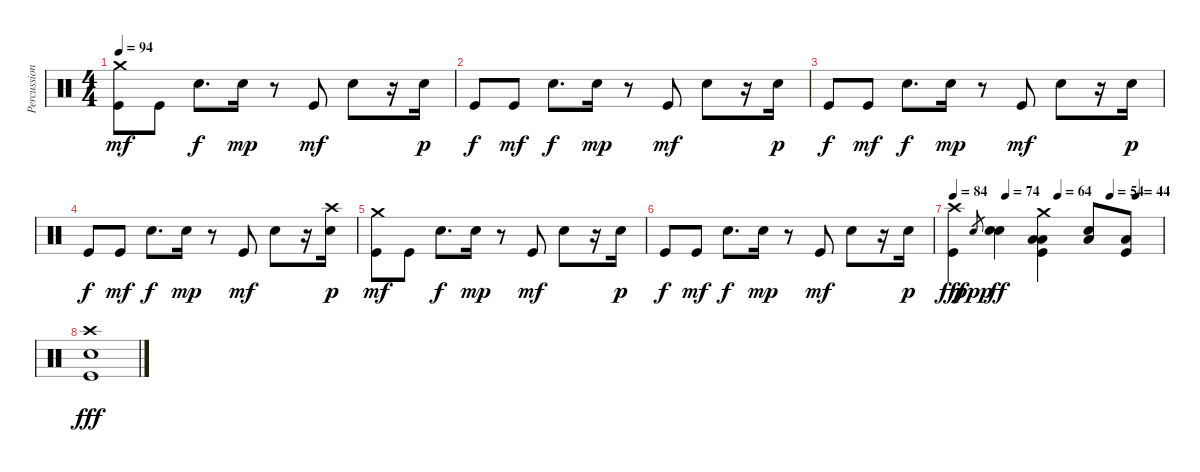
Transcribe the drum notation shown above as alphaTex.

\track ("Percussions" "Percussion") {instrument percussion}
\staff {score}
\articulation defaults
\ts (4 4)
\tempo 94
\clef neutral
\ks c
("Crash medium (hit)" "Kick (hit)").8{dy mf} "Kick (hit)".8 "Snare (hit) 2".8{d dy f} "Snare (hit) 2".16{dy mp} r.8 "Kick (hit)".8{dy mf} "Snare (hit) 2".8 r.16 "Snare (hit) 2".16{dy p} |
"Kick (hit)".8{dy f} "Kick (hit)".8{dy mf} "Snare (hit) 2".8{d dy f} "Snare (hit) 2".16{dy mp} r.8 "Kick (hit)".8{dy mf} "Snare (hit) 2".8 r.16 "Snare (hit) 2".16{dy p} |
"Kick (hit)".8{dy f} "Kick (hit)".8{dy mf} "Snare (hit) 2".8{d dy f} "Snare (hit) 2".16{dy mp} r.8 "Kick (hit)".8{dy mf} "Snare (hit) 2".8 r.16 "Snare (hit) 2".16{dy p} |
"Kick (hit)".8{dy f} "Kick (hit)".8{dy mf} "Snare (hit) 2".8{d dy f} "Snare (hit) 2".16{dy mp} r.8 "Kick (hit)".8{dy mf} "Snare (hit) 2".8 r.16 ("Crash high (hit)" "Snare (hit) 2").16{dy p} |
("Crash medium (hit)" "Kick (hit)").8{dy mf} "Kick (hit)".8 "Snare (hit) 2".8{d dy f} "Snare (hit) 2".16{dy mp} r.8 "Kick (hit)".8{dy mf} "Snare (hit) 2".8 r.16 "Snare (hit) 2".16{dy p} |
"Kick (hit)".8{dy f} "Kick (hit)".8{dy mf} "Snare (hit) 2".8{d dy f} "Snare (hit) 2".16{dy mp} r.8 "Kick (hit)".8{dy mf} "Snare (hit) 2".8 r.16 "Snare (hit) 2".16{dy p} |
\tempo 84
\tempo (74 0.25)
\tempo (64 0.5)
\tempo (54 0.75)
\tempo (44 0.875)
("Crash high (hit)" "Kick (hit)").4{dy fff} "Snare (hit) 2".8{gr dy ppp} ("Snare (hit) 2" "Snare (hit) 2").4{dy ff} ("Crash medium (hit)" "Low Floor Tom (hit)" "Low Tom (hit)" "Kick (hit)").4 ("Low Tom (hit)" "Snare (hit) 2").8 ("Low Floor Tom (hit)" "Kick (hit)").8 |
("Crash high (hit)" "Snare (hit) 2" "Kick (hit)").1{dy fff}
